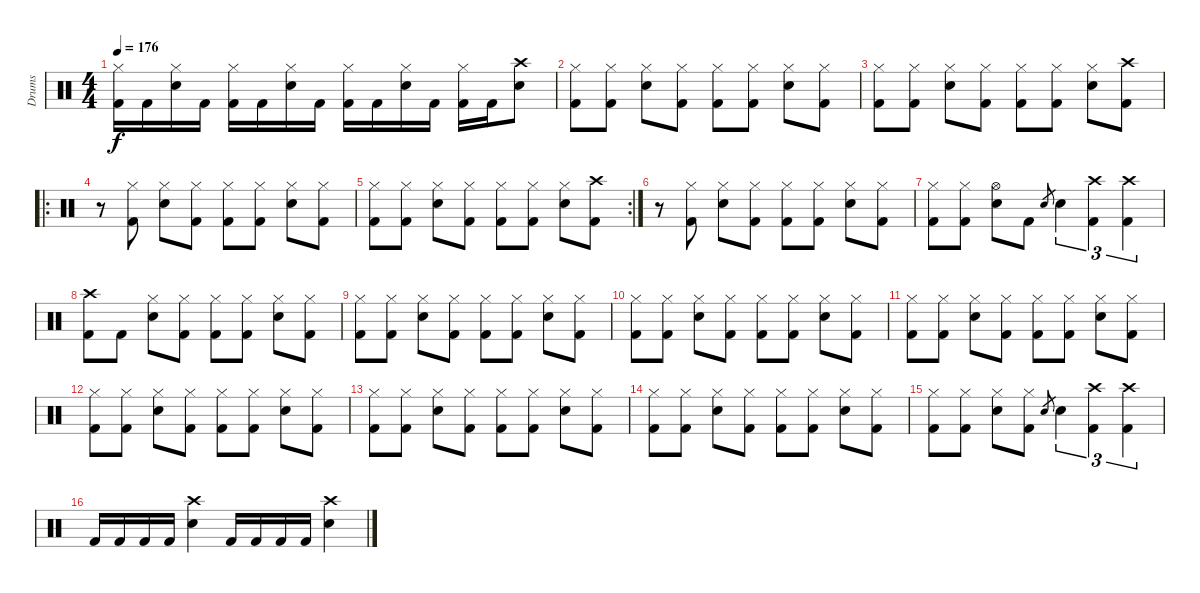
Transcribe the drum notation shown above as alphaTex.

\track ("Drums" "Drums") {instrument percussion}
\staff {score}
\articulation defaults
\ts (4 4)
\tempo 176
\clef neutral
\ks c
("Hi-Hat (closed)" "Kick (hit) 2").16{dy f} "Kick (hit) 2".16 ("Hi-Hat (closed)" "Electric Snare (hit)").16 "Kick (hit) 2".16 ("Hi-Hat (closed)" "Kick (hit) 2").16 "Kick (hit) 2".16 ("Hi-Hat (closed)" "Electric Snare (hit)").16 "Kick (hit) 2".16 ("Hi-Hat (closed)" "Kick (hit) 2").16 "Kick (hit) 2".16 ("Hi-Hat (closed)" "Electric Snare (hit)").16 "Kick (hit) 2".16 ("Hi-Hat (closed)" "Kick (hit) 2").16 "Kick (hit) 2".16 ("Crash high (hit)" "Electric Snare (hit)").8 |
("Hi-Hat (closed)" "Kick (hit) 2").8 ("Hi-Hat (closed)" "Kick (hit) 2").8 ("Hi-Hat (closed)" "Electric Snare (hit)").8 ("Hi-Hat (closed)" "Kick (hit) 2").8 ("Hi-Hat (closed)" "Kick (hit) 2").8 ("Hi-Hat (closed)" "Kick (hit) 2").8 ("Hi-Hat (closed)" "Electric Snare (hit)").8 ("Hi-Hat (closed)" "Kick (hit) 2").8 |
("Hi-Hat (closed)" "Kick (hit) 2").8 ("Hi-Hat (closed)" "Kick (hit) 2").8 ("Hi-Hat (closed)" "Electric Snare (hit)").8 ("Hi-Hat (closed)" "Kick (hit) 2").8 ("Hi-Hat (closed)" "Kick (hit) 2").8 ("Hi-Hat (closed)" "Kick (hit) 2").8 ("Hi-Hat (closed)" "Electric Snare (hit)").8 ("Crash high (hit)" "Kick (hit) 2").8 |
\ro
r.8 ("Hi-Hat (closed)" "Kick (hit) 2").8 ("Hi-Hat (closed)" "Electric Snare (hit)").8 ("Hi-Hat (closed)" "Kick (hit) 2").8 ("Hi-Hat (closed)" "Kick (hit) 2").8 ("Hi-Hat (closed)" "Kick (hit) 2").8 ("Hi-Hat (closed)" "Electric Snare (hit)").8 ("Hi-Hat (closed)" "Kick (hit) 2").8 |
\rc 2
("Hi-Hat (closed)" "Kick (hit) 2").8 ("Hi-Hat (closed)" "Kick (hit) 2").8 ("Hi-Hat (closed)" "Electric Snare (hit)").8 ("Hi-Hat (closed)" "Kick (hit) 2").8 ("Hi-Hat (closed)" "Kick (hit) 2").8 ("Hi-Hat (closed)" "Kick (hit) 2").8 ("Hi-Hat (closed)" "Electric Snare (hit)").8 ("Crash high (hit)" "Kick (hit) 2").8 |
r.8 ("Hi-Hat (closed)" "Kick (hit) 2").8 ("Hi-Hat (closed)" "Electric Snare (hit)").8 ("Hi-Hat (closed)" "Kick (hit) 2").8 ("Hi-Hat (closed)" "Kick (hit) 2").8 ("Hi-Hat (closed)" "Kick (hit) 2").8 ("Hi-Hat (closed)" "Electric Snare (hit)").8 ("Hi-Hat (closed)" "Kick (hit) 2").8 |
("Hi-Hat (closed)" "Kick (hit) 2").8 ("Hi-Hat (closed)" "Kick (hit) 2").8 ("Hi-Hat (open)" "Electric Snare (hit)").8 "Kick (hit) 2".8 "Electric Snare (hit)".8{gr} "Electric Snare (hit)".4{tu (3 2)} ("Crash high (hit)" "Kick (hit) 2").4{tu (3 2)} ("Crash high (hit)" "Kick (hit) 2").4{tu (3 2)} |
("Crash high (hit)" "Kick (hit) 2").8 "Kick (hit) 2".8 ("Hi-Hat (closed)" "Electric Snare (hit)").8 ("Hi-Hat (closed)" "Kick (hit) 2").8 ("Hi-Hat (closed)" "Kick (hit) 2").8 ("Hi-Hat (closed)" "Kick (hit) 2").8 ("Hi-Hat (closed)" "Electric Snare (hit)").8 ("Hi-Hat (closed)" "Kick (hit) 2").8 |
("Hi-Hat (closed)" "Kick (hit) 2").8 ("Hi-Hat (closed)" "Kick (hit) 2").8 ("Hi-Hat (closed)" "Electric Snare (hit)").8 ("Hi-Hat (closed)" "Kick (hit) 2").8 ("Hi-Hat (closed)" "Kick (hit) 2").8 ("Hi-Hat (closed)" "Kick (hit) 2").8 ("Hi-Hat (closed)" "Electric Snare (hit)").8 ("Hi-Hat (closed)" "Kick (hit) 2").8 |
("Hi-Hat (closed)" "Kick (hit) 2").8 ("Hi-Hat (closed)" "Kick (hit) 2").8 ("Hi-Hat (closed)" "Electric Snare (hit)").8 ("Hi-Hat (closed)" "Kick (hit) 2").8 ("Hi-Hat (closed)" "Kick (hit) 2").8 ("Hi-Hat (closed)" "Kick (hit) 2").8 ("Hi-Hat (closed)" "Electric Snare (hit)").8 ("Hi-Hat (closed)" "Kick (hit) 2").8 |
("Hi-Hat (closed)" "Kick (hit) 2").8 ("Hi-Hat (closed)" "Kick (hit) 2").8 ("Hi-Hat (closed)" "Electric Snare (hit)").8 ("Hi-Hat (closed)" "Kick (hit) 2").8 ("Hi-Hat (closed)" "Kick (hit) 2").8 ("Hi-Hat (closed)" "Kick (hit) 2").8 ("Hi-Hat (closed)" "Electric Snare (hit)").8 ("Hi-Hat (closed)" "Kick (hit) 2").8 |
("Hi-Hat (closed)" "Kick (hit) 2").8 ("Hi-Hat (closed)" "Kick (hit) 2").8 ("Hi-Hat (closed)" "Electric Snare (hit)").8 ("Hi-Hat (closed)" "Kick (hit) 2").8 ("Hi-Hat (closed)" "Kick (hit) 2").8 ("Hi-Hat (closed)" "Kick (hit) 2").8 ("Hi-Hat (closed)" "Electric Snare (hit)").8 ("Hi-Hat (closed)" "Kick (hit) 2").8 |
("Hi-Hat (closed)" "Kick (hit) 2").8 ("Hi-Hat (closed)" "Kick (hit) 2").8 ("Hi-Hat (closed)" "Electric Snare (hit)").8 ("Hi-Hat (closed)" "Kick (hit) 2").8 ("Hi-Hat (closed)" "Kick (hit) 2").8 ("Hi-Hat (closed)" "Kick (hit) 2").8 ("Hi-Hat (closed)" "Electric Snare (hit)").8 ("Hi-Hat (closed)" "Kick (hit) 2").8 |
("Hi-Hat (closed)" "Kick (hit) 2").8 ("Hi-Hat (closed)" "Kick (hit) 2").8 ("Hi-Hat (closed)" "Electric Snare (hit)").8 ("Hi-Hat (closed)" "Kick (hit) 2").8 ("Hi-Hat (closed)" "Kick (hit) 2").8 ("Hi-Hat (closed)" "Kick (hit) 2").8 ("Hi-Hat (closed)" "Electric Snare (hit)").8 ("Hi-Hat (closed)" "Kick (hit) 2").8 |
("Hi-Hat (closed)" "Kick (hit) 2").8 ("Hi-Hat (closed)" "Kick (hit) 2").8 ("Hi-Hat (closed)" "Electric Snare (hit)").8 ("Hi-Hat (closed)" "Kick (hit) 2").8 "Electric Snare (hit)".8{gr} "Electric Snare (hit)".4{tu (3 2)} ("Crash high (hit)" "Kick (hit) 2").4{tu (3 2)} ("Crash high (hit)" "Kick (hit) 2").4{tu (3 2)} |
"Kick (hit) 2".16 "Kick (hit) 2".16 "Kick (hit) 2".16 "Kick (hit) 2".16 ("Crash high (hit)" "Electric Snare (hit)").4 "Kick (hit) 2".16 "Kick (hit) 2".16 "Kick (hit) 2".16 "Kick (hit) 2".16 ("Crash high (hit)" "Electric Snare (hit)").4
